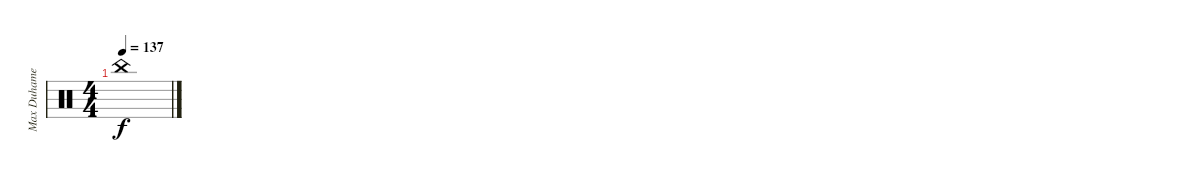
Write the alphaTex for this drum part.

\track ("Max Duhamel (Drums)" "Max Duhame") {instrument percussion}
\staff {score}
\articulation defaults
\ts (4 4)
\tempo 137
\clef neutral
\ks c "China (hit)".1{dy f}
